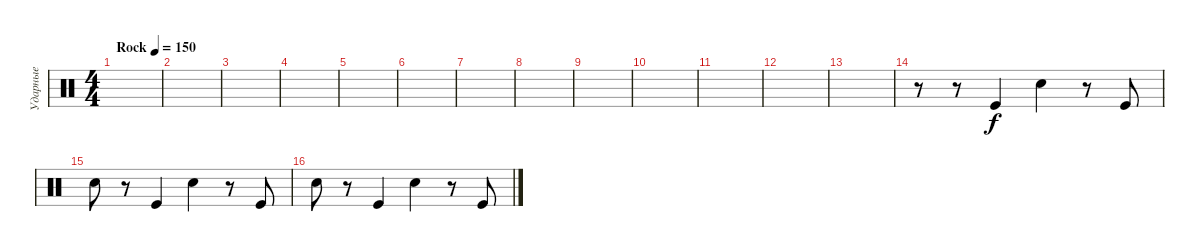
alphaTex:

\track ("Ударные" "Ударные") {instrument percussion}
\staff {score}
\articulation defaults
\ts (4 4)
\tempo (150 "Rock")
\clef neutral
\ks c
|
|
|
|
|
|
|
|
|
|
|
|
|
r.8 r.8 "Kick (hit)".4 "Snare (hit) 2".4 r.8 "Kick (hit)".8 |
"Snare (hit) 2".8 r.8 "Kick (hit)".4 "Snare (hit) 2".4 r.8 "Kick (hit)".8 |
"Snare (hit) 2".8 r.8 "Kick (hit)".4 "Snare (hit) 2".4 r.8 "Kick (hit)".8
